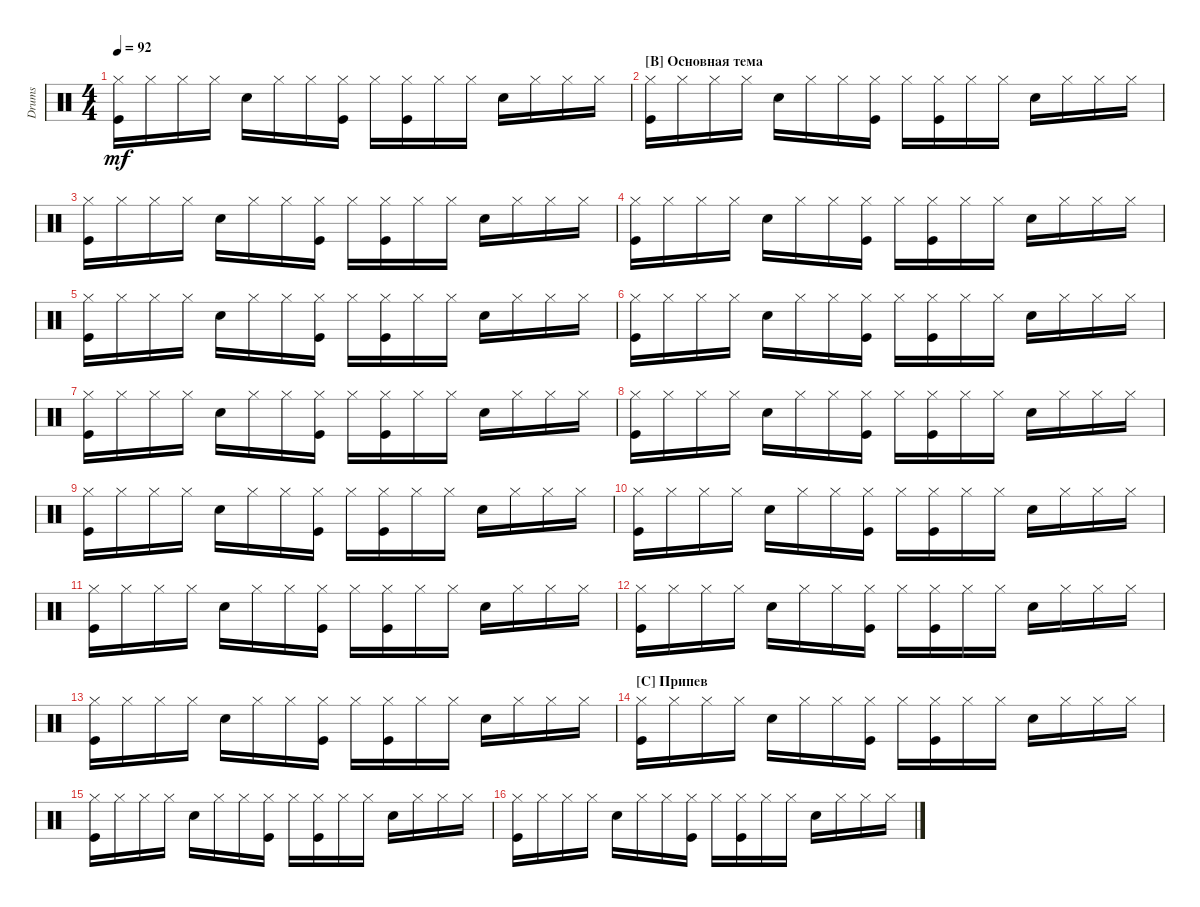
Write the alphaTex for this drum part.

\track ("Drumkit" "Drums") {instrument percussion}
\staff {score}
\articulation defaults
\ts (4 4)
\tempo 92
\clef neutral
\ks c
("Kick (hit)" "Hi-Hat (closed)").16{dy mf} "Hi-Hat (closed)".16 "Hi-Hat (closed)".16 "Hi-Hat (closed)".16 "Snare (hit) 2".16 "Hi-Hat (closed)".16 "Hi-Hat (closed)".16 ("Hi-Hat (closed)" "Kick (hit)").16 "Hi-Hat (closed)".16 ("Hi-Hat (closed)" "Kick (hit)").16 "Hi-Hat (closed)".16 "Hi-Hat (closed)".16 "Snare (hit) 2".16 "Hi-Hat (closed)".16 "Hi-Hat (closed)".16 "Hi-Hat (closed)".16 |
\section ("B" "Основная тема")
("Kick (hit)" "Hi-Hat (closed)").16 "Hi-Hat (closed)".16 "Hi-Hat (closed)".16 "Hi-Hat (closed)".16 "Snare (hit) 2".16 "Hi-Hat (closed)".16 "Hi-Hat (closed)".16 ("Hi-Hat (closed)" "Kick (hit)").16 "Hi-Hat (closed)".16 ("Hi-Hat (closed)" "Kick (hit)").16 "Hi-Hat (closed)".16 "Hi-Hat (closed)".16 "Snare (hit) 2".16 "Hi-Hat (closed)".16 "Hi-Hat (closed)".16 "Hi-Hat (closed)".16 |
("Kick (hit)" "Hi-Hat (closed)").16 "Hi-Hat (closed)".16 "Hi-Hat (closed)".16 "Hi-Hat (closed)".16 "Snare (hit) 2".16 "Hi-Hat (closed)".16 "Hi-Hat (closed)".16 ("Hi-Hat (closed)" "Kick (hit)").16 "Hi-Hat (closed)".16 ("Hi-Hat (closed)" "Kick (hit)").16 "Hi-Hat (closed)".16 "Hi-Hat (closed)".16 "Snare (hit) 2".16 "Hi-Hat (closed)".16 "Hi-Hat (closed)".16 "Hi-Hat (closed)".16 |
("Kick (hit)" "Hi-Hat (closed)").16 "Hi-Hat (closed)".16 "Hi-Hat (closed)".16 "Hi-Hat (closed)".16 "Snare (hit) 2".16 "Hi-Hat (closed)".16 "Hi-Hat (closed)".16 ("Hi-Hat (closed)" "Kick (hit)").16 "Hi-Hat (closed)".16 ("Hi-Hat (closed)" "Kick (hit)").16 "Hi-Hat (closed)".16 "Hi-Hat (closed)".16 "Snare (hit) 2".16 "Hi-Hat (closed)".16 "Hi-Hat (closed)".16 "Hi-Hat (closed)".16 |
("Kick (hit)" "Hi-Hat (closed)").16 "Hi-Hat (closed)".16 "Hi-Hat (closed)".16 "Hi-Hat (closed)".16 "Snare (hit) 2".16 "Hi-Hat (closed)".16 "Hi-Hat (closed)".16 ("Hi-Hat (closed)" "Kick (hit)").16 "Hi-Hat (closed)".16 ("Hi-Hat (closed)" "Kick (hit)").16 "Hi-Hat (closed)".16 "Hi-Hat (closed)".16 "Snare (hit) 2".16 "Hi-Hat (closed)".16 "Hi-Hat (closed)".16 "Hi-Hat (closed)".16 |
("Kick (hit)" "Hi-Hat (closed)").16 "Hi-Hat (closed)".16 "Hi-Hat (closed)".16 "Hi-Hat (closed)".16 "Snare (hit) 2".16 "Hi-Hat (closed)".16 "Hi-Hat (closed)".16 ("Hi-Hat (closed)" "Kick (hit)").16 "Hi-Hat (closed)".16 ("Hi-Hat (closed)" "Kick (hit)").16 "Hi-Hat (closed)".16 "Hi-Hat (closed)".16 "Snare (hit) 2".16 "Hi-Hat (closed)".16 "Hi-Hat (closed)".16 "Hi-Hat (closed)".16 |
("Kick (hit)" "Hi-Hat (closed)").16 "Hi-Hat (closed)".16 "Hi-Hat (closed)".16 "Hi-Hat (closed)".16 "Snare (hit) 2".16 "Hi-Hat (closed)".16 "Hi-Hat (closed)".16 ("Hi-Hat (closed)" "Kick (hit)").16 "Hi-Hat (closed)".16 ("Hi-Hat (closed)" "Kick (hit)").16 "Hi-Hat (closed)".16 "Hi-Hat (closed)".16 "Snare (hit) 2".16 "Hi-Hat (closed)".16 "Hi-Hat (closed)".16 "Hi-Hat (closed)".16 |
("Kick (hit)" "Hi-Hat (closed)").16 "Hi-Hat (closed)".16 "Hi-Hat (closed)".16 "Hi-Hat (closed)".16 "Snare (hit) 2".16 "Hi-Hat (closed)".16 "Hi-Hat (closed)".16 ("Hi-Hat (closed)" "Kick (hit)").16 "Hi-Hat (closed)".16 ("Hi-Hat (closed)" "Kick (hit)").16 "Hi-Hat (closed)".16 "Hi-Hat (closed)".16 "Snare (hit) 2".16 "Hi-Hat (closed)".16 "Hi-Hat (closed)".16 "Hi-Hat (closed)".16 |
("Kick (hit)" "Hi-Hat (closed)").16 "Hi-Hat (closed)".16 "Hi-Hat (closed)".16 "Hi-Hat (closed)".16 "Snare (hit) 2".16 "Hi-Hat (closed)".16 "Hi-Hat (closed)".16 ("Hi-Hat (closed)" "Kick (hit)").16 "Hi-Hat (closed)".16 ("Hi-Hat (closed)" "Kick (hit)").16 "Hi-Hat (closed)".16 "Hi-Hat (closed)".16 "Snare (hit) 2".16 "Hi-Hat (closed)".16 "Hi-Hat (closed)".16 "Hi-Hat (closed)".16 |
("Kick (hit)" "Hi-Hat (closed)").16 "Hi-Hat (closed)".16 "Hi-Hat (closed)".16 "Hi-Hat (closed)".16 "Snare (hit) 2".16 "Hi-Hat (closed)".16 "Hi-Hat (closed)".16 ("Hi-Hat (closed)" "Kick (hit)").16 "Hi-Hat (closed)".16 ("Hi-Hat (closed)" "Kick (hit)").16 "Hi-Hat (closed)".16 "Hi-Hat (closed)".16 "Snare (hit) 2".16 "Hi-Hat (closed)".16 "Hi-Hat (closed)".16 "Hi-Hat (closed)".16 |
("Kick (hit)" "Hi-Hat (closed)").16 "Hi-Hat (closed)".16 "Hi-Hat (closed)".16 "Hi-Hat (closed)".16 "Snare (hit) 2".16 "Hi-Hat (closed)".16 "Hi-Hat (closed)".16 ("Hi-Hat (closed)" "Kick (hit)").16 "Hi-Hat (closed)".16 ("Hi-Hat (closed)" "Kick (hit)").16 "Hi-Hat (closed)".16 "Hi-Hat (closed)".16 "Snare (hit) 2".16 "Hi-Hat (closed)".16 "Hi-Hat (closed)".16 "Hi-Hat (closed)".16 |
("Kick (hit)" "Hi-Hat (closed)").16 "Hi-Hat (closed)".16 "Hi-Hat (closed)".16 "Hi-Hat (closed)".16 "Snare (hit) 2".16 "Hi-Hat (closed)".16 "Hi-Hat (closed)".16 ("Hi-Hat (closed)" "Kick (hit)").16 "Hi-Hat (closed)".16 ("Hi-Hat (closed)" "Kick (hit)").16 "Hi-Hat (closed)".16 "Hi-Hat (closed)".16 "Snare (hit) 2".16 "Hi-Hat (closed)".16 "Hi-Hat (closed)".16 "Hi-Hat (closed)".16 |
("Kick (hit)" "Hi-Hat (closed)").16 "Hi-Hat (closed)".16 "Hi-Hat (closed)".16 "Hi-Hat (closed)".16 "Snare (hit) 2".16 "Hi-Hat (closed)".16 "Hi-Hat (closed)".16 ("Hi-Hat (closed)" "Kick (hit)").16 "Hi-Hat (closed)".16 ("Hi-Hat (closed)" "Kick (hit)").16 "Hi-Hat (closed)".16 "Hi-Hat (closed)".16 "Snare (hit) 2".16 "Hi-Hat (closed)".16 "Hi-Hat (closed)".16 "Hi-Hat (closed)".16 |
\section ("C" "Припев")
("Kick (hit)" "Hi-Hat (closed)").16 "Hi-Hat (closed)".16 "Hi-Hat (closed)".16 "Hi-Hat (closed)".16 "Snare (hit) 2".16 "Hi-Hat (closed)".16 "Hi-Hat (closed)".16 ("Hi-Hat (closed)" "Kick (hit)").16 "Hi-Hat (closed)".16 ("Hi-Hat (closed)" "Kick (hit)").16 "Hi-Hat (closed)".16 "Hi-Hat (closed)".16 "Snare (hit) 2".16 "Hi-Hat (closed)".16 "Hi-Hat (closed)".16 "Hi-Hat (closed)".16 |
("Kick (hit)" "Hi-Hat (closed)").16 "Hi-Hat (closed)".16 "Hi-Hat (closed)".16 "Hi-Hat (closed)".16 "Snare (hit) 2".16 "Hi-Hat (closed)".16 "Hi-Hat (closed)".16 ("Hi-Hat (closed)" "Kick (hit)").16 "Hi-Hat (closed)".16 ("Hi-Hat (closed)" "Kick (hit)").16 "Hi-Hat (closed)".16 "Hi-Hat (closed)".16 "Snare (hit) 2".16 "Hi-Hat (closed)".16 "Hi-Hat (closed)".16 "Hi-Hat (closed)".16 |
("Kick (hit)" "Hi-Hat (closed)").16 "Hi-Hat (closed)".16 "Hi-Hat (closed)".16 "Hi-Hat (closed)".16 "Snare (hit) 2".16 "Hi-Hat (closed)".16 "Hi-Hat (closed)".16 ("Hi-Hat (closed)" "Kick (hit)").16 "Hi-Hat (closed)".16 ("Hi-Hat (closed)" "Kick (hit)").16 "Hi-Hat (closed)".16 "Hi-Hat (closed)".16 "Snare (hit) 2".16 "Hi-Hat (closed)".16 "Hi-Hat (closed)".16 "Hi-Hat (closed)".16
